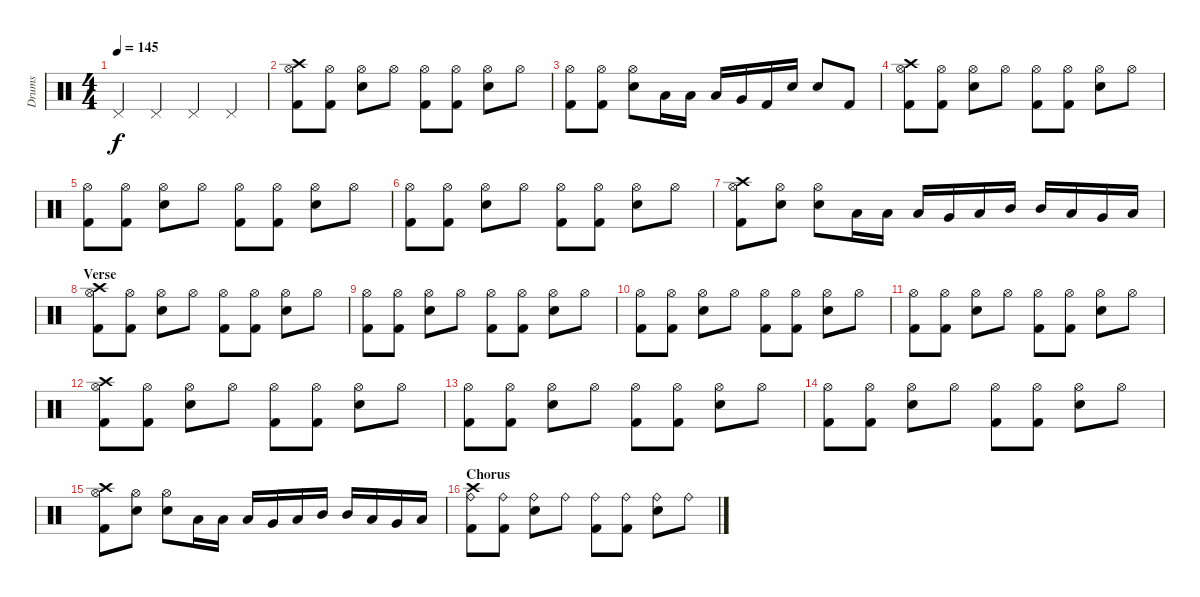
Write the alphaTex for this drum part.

\track ("Drums" "Drums") {instrument percussion}
\staff {score}
\articulation defaults
\ts (4 4)
\tempo 145
\clef neutral
\ks c "Pedal Hi-Hat (hit)".4{dy f} "Pedal Hi-Hat (hit)".4 "Pedal Hi-Hat (hit)".4 "Pedal Hi-Hat (hit)".4
|
("Crash high (hit)" "Hi-Hat (open)" "Kick (hit) 2").8 ("Hi-Hat (open)" "Kick (hit) 2").8 ("Hi-Hat (open)" "Electric Snare (hit)").8 "Hi-Hat (open)".8 ("Hi-Hat (open)" "Kick (hit) 2").8 ("Hi-Hat (open)" "Kick (hit) 2").8 ("Hi-Hat (open)" "Electric Snare (hit)").8 "Hi-Hat (open)".8 |
("Hi-Hat (open)" "Kick (hit) 2").8 ("Hi-Hat (open)" "Kick (hit) 2").8 ("Hi-Hat (open)" "Electric Snare (hit)").8 "Low Floor Tom (hit)".16 "Low Floor Tom (hit)".16 "Low Floor Tom (hit)".16 "Very Low Tom (hit)".16 "Kick (hit) 2".16 "Electric Snare (hit)".16 "Electric Snare (hit)".8 "Kick (hit) 2".8 |
("Crash high (hit)" "Hi-Hat (open)" "Kick (hit) 2").8 ("Hi-Hat (open)" "Kick (hit) 2").8 ("Hi-Hat (open)" "Electric Snare (hit)").8 "Hi-Hat (open)".8 ("Hi-Hat (open)" "Kick (hit) 2").8 ("Hi-Hat (open)" "Kick (hit) 2").8 ("Hi-Hat (open)" "Electric Snare (hit)").8 "Hi-Hat (open)".8 |
("Hi-Hat (open)" "Kick (hit) 2").8 ("Hi-Hat (open)" "Kick (hit) 2").8 ("Hi-Hat (open)" "Electric Snare (hit)").8 "Hi-Hat (open)".8 ("Hi-Hat (open)" "Kick (hit) 2").8 ("Hi-Hat (open)" "Kick (hit) 2").8 ("Hi-Hat (open)" "Electric Snare (hit)").8 "Hi-Hat (open)".8 |
("Hi-Hat (open)" "Kick (hit) 2").8 ("Hi-Hat (open)" "Kick (hit) 2").8 ("Hi-Hat (open)" "Electric Snare (hit)").8 "Hi-Hat (open)".8 ("Hi-Hat (open)" "Kick (hit) 2").8 ("Hi-Hat (open)" "Kick (hit) 2").8 ("Hi-Hat (open)" "Electric Snare (hit)").8 "Hi-Hat (open)".8 |
("Crash high (hit)" "Hi-Hat (open)" "Kick (hit) 2").8 ("Hi-Hat (open)" "Electric Snare (hit)").8 ("Hi-Hat (open)" "Electric Snare (hit)").8 "Low Floor Tom (hit)".16 "Low Floor Tom (hit)".16 "Low Floor Tom (hit)".16 "Very Low Tom (hit)".16 "Low Tom (hit)".16 "Mid Tom (hit)".16 "Mid Tom (hit)".16 "Low Tom (hit)".16 "Very Low Tom (hit)".16 "Low Floor Tom (hit)".16 |
\section ("" "Verse")
("Crash high (hit)" "Hi-Hat (open)" "Kick (hit) 2").8 ("Hi-Hat (open)" "Kick (hit) 2").8 ("Hi-Hat (open)" "Electric Snare (hit)").8 "Hi-Hat (open)".8 ("Hi-Hat (open)" "Kick (hit) 2").8 ("Hi-Hat (open)" "Kick (hit) 2").8 ("Hi-Hat (open)" "Electric Snare (hit)").8 "Hi-Hat (open)".8 |
("Hi-Hat (open)" "Kick (hit) 2").8 ("Hi-Hat (open)" "Kick (hit) 2").8 ("Hi-Hat (open)" "Electric Snare (hit)").8 "Hi-Hat (open)".8 ("Hi-Hat (open)" "Kick (hit) 2").8 ("Hi-Hat (open)" "Kick (hit) 2").8 ("Hi-Hat (open)" "Electric Snare (hit)").8 "Hi-Hat (open)".8 |
("Hi-Hat (open)" "Kick (hit) 2").8 ("Hi-Hat (open)" "Kick (hit) 2").8 ("Hi-Hat (open)" "Electric Snare (hit)").8 "Hi-Hat (open)".8 ("Hi-Hat (open)" "Kick (hit) 2").8 ("Hi-Hat (open)" "Kick (hit) 2").8 ("Hi-Hat (open)" "Electric Snare (hit)").8 "Hi-Hat (open)".8 |
("Hi-Hat (open)" "Kick (hit) 2").8 ("Hi-Hat (open)" "Kick (hit) 2").8 ("Hi-Hat (open)" "Electric Snare (hit)").8 "Hi-Hat (open)".8 ("Hi-Hat (open)" "Kick (hit) 2").8 ("Hi-Hat (open)" "Kick (hit) 2").8 ("Hi-Hat (open)" "Electric Snare (hit)").8 "Hi-Hat (open)".8 |
("Crash high (hit)" "Hi-Hat (open)" "Kick (hit) 2").8 ("Hi-Hat (open)" "Kick (hit) 2").8 ("Hi-Hat (open)" "Electric Snare (hit)").8 "Hi-Hat (open)".8 ("Hi-Hat (open)" "Kick (hit) 2").8 ("Hi-Hat (open)" "Kick (hit) 2").8 ("Hi-Hat (open)" "Electric Snare (hit)").8 "Hi-Hat (open)".8 |
("Hi-Hat (open)" "Kick (hit) 2").8 ("Hi-Hat (open)" "Kick (hit) 2").8 ("Hi-Hat (open)" "Electric Snare (hit)").8 "Hi-Hat (open)".8 ("Hi-Hat (open)" "Kick (hit) 2").8 ("Hi-Hat (open)" "Kick (hit) 2").8 ("Hi-Hat (open)" "Electric Snare (hit)").8 "Hi-Hat (open)".8 |
("Hi-Hat (open)" "Kick (hit) 2").8 ("Hi-Hat (open)" "Kick (hit) 2").8 ("Hi-Hat (open)" "Electric Snare (hit)").8 "Hi-Hat (open)".8 ("Hi-Hat (open)" "Kick (hit) 2").8 ("Hi-Hat (open)" "Kick (hit) 2").8 ("Hi-Hat (open)" "Electric Snare (hit)").8 "Hi-Hat (open)".8 |
("Crash high (hit)" "Hi-Hat (open)" "Kick (hit) 2").8 ("Hi-Hat (open)" "Electric Snare (hit)").8 ("Hi-Hat (open)" "Electric Snare (hit)").8 "Low Floor Tom (hit)".16 "Low Floor Tom (hit)".16 "Low Floor Tom (hit)".16 "Very Low Tom (hit)".16 "Low Tom (hit)".16 "Mid Tom (hit)".16 "Mid Tom (hit)".16 "Low Tom (hit)".16 "Very Low Tom (hit)".16 "Low Floor Tom (hit)".16 |
\section ("" "Chorus")
("Crash high (hit)" "Ride (bell)" "Kick (hit) 2").8 ("Ride (bell)" "Kick (hit) 2").8 ("Ride (bell)" "Electric Snare (hit)").8 "Ride (bell)".8 ("Ride (bell)" "Kick (hit) 2").8 ("Ride (bell)" "Kick (hit) 2").8 ("Ride (bell)" "Electric Snare (hit)").8 "Ride (bell)".8
